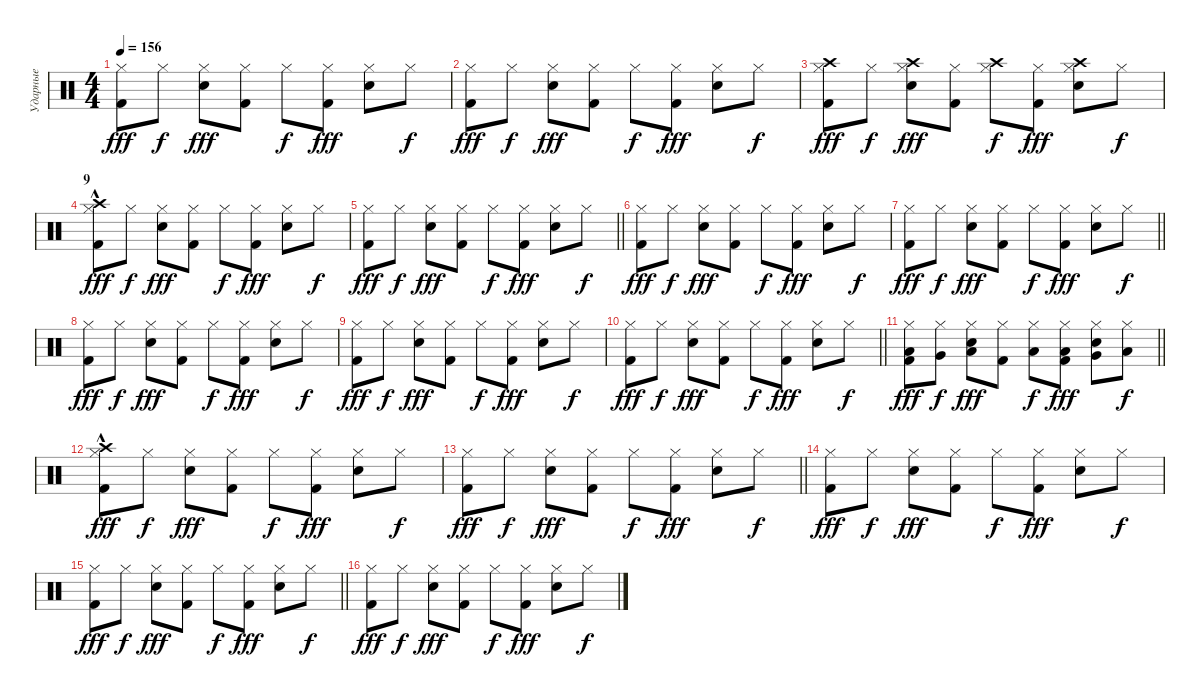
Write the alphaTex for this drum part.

\track ("Ударные" "Ударные") {instrument percussion}
\staff {score}
\articulation defaults
\ts (4 4)
\tempo 156
\clef neutral
\ks c
("Hi-Hat (closed)" "Kick (hit) 2").8{dy fff} "Hi-Hat (closed)".8{dy f} ("Hi-Hat (closed)" "Snare (hit) 2").8{dy fff} ("Hi-Hat (closed)" "Kick (hit) 2").8 "Hi-Hat (closed)".8{dy f} ("Hi-Hat (closed)" "Kick (hit) 2").8{dy fff} ("Hi-Hat (closed)" "Snare (hit) 2").8 "Hi-Hat (closed)".8{dy f} |
("Hi-Hat (closed)" "Kick (hit) 2").8{dy fff} "Hi-Hat (closed)".8{dy f} ("Hi-Hat (closed)" "Snare (hit) 2").8{dy fff} ("Hi-Hat (closed)" "Kick (hit) 2").8 "Hi-Hat (closed)".8{dy f} ("Hi-Hat (closed)" "Kick (hit) 2").8{dy fff} ("Hi-Hat (closed)" "Snare (hit) 2").8 "Hi-Hat (closed)".8{dy f} |
("Hi-Hat (closed)" "Kick (hit) 2" "Crash high (hit)").8{dy fff} "Hi-Hat (closed)".8{dy f} ("Hi-Hat (closed)" "Snare (hit) 2" "Crash high (hit)").8{dy fff} ("Hi-Hat (closed)" "Kick (hit) 2").8 ("Hi-Hat (closed)" "Crash high (hit)").8{dy f} ("Hi-Hat (closed)" "Kick (hit) 2").8{dy fff} ("Hi-Hat (closed)" "Snare (hit) 2" "Crash high (hit)").8 "Hi-Hat (closed)".8{dy f} |
\section ("" "9")
("Hi-Hat (closed)" "Kick (hit) 2" "Crash high (hit)"{hac}).8{dy fff} "Hi-Hat (closed)".8{dy f} ("Hi-Hat (closed)" "Snare (hit) 2").8{dy fff} ("Hi-Hat (closed)" "Kick (hit) 2").8 "Hi-Hat (closed)".8{dy f} ("Hi-Hat (closed)" "Kick (hit) 2").8{dy fff} ("Hi-Hat (closed)" "Snare (hit) 2").8 "Hi-Hat (closed)".8{dy f} |
\barLineRight lightlight
("Hi-Hat (closed)" "Kick (hit) 2").8{dy fff} "Hi-Hat (closed)".8{dy f} ("Hi-Hat (closed)" "Snare (hit) 2").8{dy fff} ("Hi-Hat (closed)" "Kick (hit) 2").8 "Hi-Hat (closed)".8{dy f} ("Hi-Hat (closed)" "Kick (hit) 2").8{dy fff} ("Hi-Hat (closed)" "Snare (hit) 2").8 "Hi-Hat (closed)".8{dy f} |
("Hi-Hat (closed)" "Kick (hit) 2").8{dy fff} "Hi-Hat (closed)".8{dy f} ("Hi-Hat (closed)" "Snare (hit) 2").8{dy fff} ("Hi-Hat (closed)" "Kick (hit) 2").8 "Hi-Hat (closed)".8{dy f} ("Hi-Hat (closed)" "Kick (hit) 2").8{dy fff} ("Hi-Hat (closed)" "Snare (hit) 2").8 "Hi-Hat (closed)".8{dy f} |
\barLineRight lightlight
("Hi-Hat (closed)" "Kick (hit) 2").8{dy fff} "Hi-Hat (closed)".8{dy f} ("Hi-Hat (closed)" "Snare (hit) 2").8{dy fff} ("Hi-Hat (closed)" "Kick (hit) 2").8 "Hi-Hat (closed)".8{dy f} ("Hi-Hat (closed)" "Kick (hit) 2").8{dy fff} ("Hi-Hat (closed)" "Snare (hit) 2").8 "Hi-Hat (closed)".8{dy f} |
("Hi-Hat (closed)" "Kick (hit) 2").8{dy fff} "Hi-Hat (closed)".8{dy f} ("Hi-Hat (closed)" "Snare (hit) 2").8{dy fff} ("Hi-Hat (closed)" "Kick (hit) 2").8 "Hi-Hat (closed)".8{dy f} ("Hi-Hat (closed)" "Kick (hit) 2").8{dy fff} ("Hi-Hat (closed)" "Snare (hit) 2").8 "Hi-Hat (closed)".8{dy f} |
("Hi-Hat (closed)" "Kick (hit) 2").8{dy fff} "Hi-Hat (closed)".8{dy f} ("Hi-Hat (closed)" "Snare (hit) 2").8{dy fff} ("Hi-Hat (closed)" "Kick (hit) 2").8 "Hi-Hat (closed)".8{dy f} ("Hi-Hat (closed)" "Kick (hit) 2").8{dy fff} ("Hi-Hat (closed)" "Snare (hit) 2").8 "Hi-Hat (closed)".8{dy f} |
\barLineRight lightlight
("Hi-Hat (closed)" "Kick (hit) 2").8{dy fff} "Hi-Hat (closed)".8{dy f} ("Hi-Hat (closed)" "Snare (hit) 2").8{dy fff} ("Hi-Hat (closed)" "Kick (hit) 2").8 "Hi-Hat (closed)".8{dy f} ("Hi-Hat (closed)" "Kick (hit) 2").8{dy fff} ("Hi-Hat (closed)" "Snare (hit) 2").8 "Hi-Hat (closed)".8{dy f} |
\barLineRight lightlight
("Hi-Hat (closed)" "Kick (hit) 2" "Low Floor Tom (hit)").8{dy fff} ("Hi-Hat (closed)" "Very Low Tom (hit)").8{dy f} ("Hi-Hat (closed)" "Snare (hit) 2" "Low Tom (hit)").8{dy fff} ("Hi-Hat (closed)" "Kick (hit) 2").8 ("Hi-Hat (closed)" "Low Floor Tom (hit)").8{dy f} ("Hi-Hat (closed)" "Kick (hit) 2" "Low Floor Tom (hit)").8{dy fff} ("Hi-Hat (closed)" "Snare (hit) 2" "Very Low Tom (hit)").8 ("Hi-Hat (closed)" "Low Tom (hit)").8{dy f} |
("Hi-Hat (closed)" "Kick (hit) 2" "Crash high (hit)"{hac}).8{dy fff} "Hi-Hat (closed)".8{dy f} ("Hi-Hat (closed)" "Snare (hit) 2").8{dy fff} ("Hi-Hat (closed)" "Kick (hit) 2").8 "Hi-Hat (closed)".8{dy f} ("Hi-Hat (closed)" "Kick (hit) 2").8{dy fff} ("Hi-Hat (closed)" "Snare (hit) 2").8 "Hi-Hat (closed)".8{dy f} |
\barLineRight lightlight
("Hi-Hat (closed)" "Kick (hit) 2").8{dy fff} "Hi-Hat (closed)".8{dy f} ("Hi-Hat (closed)" "Snare (hit) 2").8{dy fff} ("Hi-Hat (closed)" "Kick (hit) 2").8 "Hi-Hat (closed)".8{dy f} ("Hi-Hat (closed)" "Kick (hit) 2").8{dy fff} ("Hi-Hat (closed)" "Snare (hit) 2").8 "Hi-Hat (closed)".8{dy f} |
("Hi-Hat (closed)" "Kick (hit) 2").8{dy fff} "Hi-Hat (closed)".8{dy f} ("Hi-Hat (closed)" "Snare (hit) 2").8{dy fff} ("Hi-Hat (closed)" "Kick (hit) 2").8 "Hi-Hat (closed)".8{dy f} ("Hi-Hat (closed)" "Kick (hit) 2").8{dy fff} ("Hi-Hat (closed)" "Snare (hit) 2").8 "Hi-Hat (closed)".8{dy f} |
\barLineRight lightlight
("Hi-Hat (closed)" "Kick (hit) 2").8{dy fff} "Hi-Hat (closed)".8{dy f} ("Hi-Hat (closed)" "Snare (hit) 2").8{dy fff} ("Hi-Hat (closed)" "Kick (hit) 2").8 "Hi-Hat (closed)".8{dy f} ("Hi-Hat (closed)" "Kick (hit) 2").8{dy fff} ("Hi-Hat (closed)" "Snare (hit) 2").8 "Hi-Hat (closed)".8{dy f} |
("Hi-Hat (closed)" "Kick (hit) 2").8{dy fff} "Hi-Hat (closed)".8{dy f} ("Hi-Hat (closed)" "Snare (hit) 2").8{dy fff} ("Hi-Hat (closed)" "Kick (hit) 2").8 "Hi-Hat (closed)".8{dy f} ("Hi-Hat (closed)" "Kick (hit) 2").8{dy fff} ("Hi-Hat (closed)" "Snare (hit) 2").8 "Hi-Hat (closed)".8{dy f}
